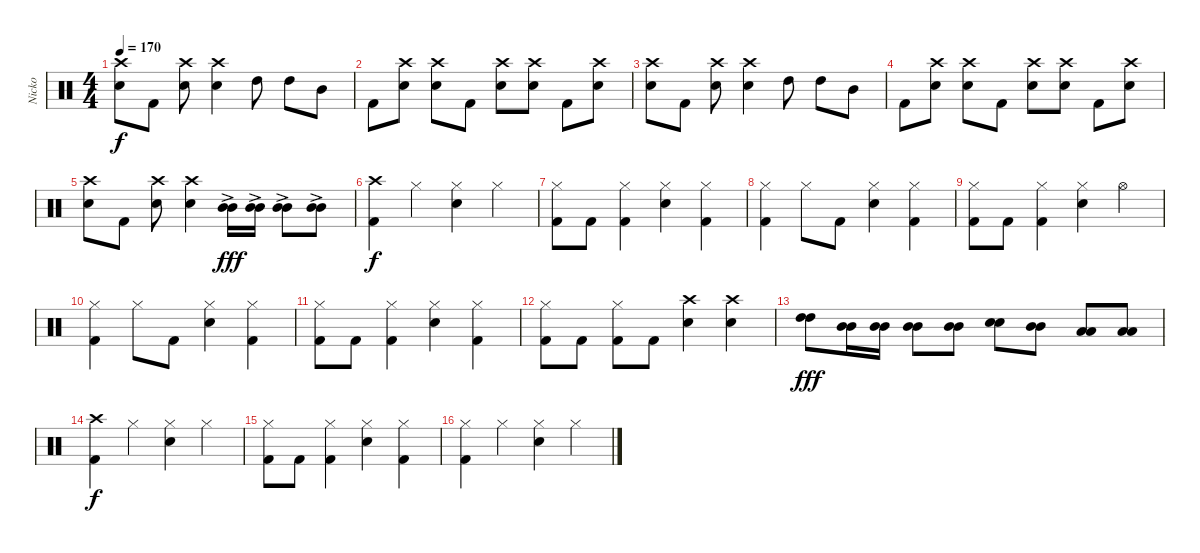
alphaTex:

\track ("Nicko" "Nicko") {instrument percussion}
\staff {score}
\articulation defaults
\ts (4 4)
\tempo 170
\clef neutral
\ks c
("Crash high (hit)" "Snare (hit) 2").8{dy f} "Kick (hit) 2".8 ("Crash high (hit)" "Snare (hit) 2").8 ("Crash high (hit)" "Snare (hit) 2").4 "High Tom (hit)".8 "High Tom (hit)".8 "Mid Tom (hit)".8 |
"Kick (hit) 2".8 ("Crash high (hit)" "Snare (hit) 2").8 ("Crash high (hit)" "Snare (hit) 2").8 "Kick (hit) 2".8 ("Crash high (hit)" "Snare (hit) 2").8 ("Crash high (hit)" "Snare (hit) 2").8 "Kick (hit) 2".8 ("Crash high (hit)" "Snare (hit) 2").8 |
("Crash high (hit)" "Snare (hit) 2").8 "Kick (hit) 2".8 ("Crash high (hit)" "Snare (hit) 2").8 ("Crash high (hit)" "Snare (hit) 2").4 "High Tom (hit)".8 "High Tom (hit)".8 "Mid Tom (hit)".8 |
"Kick (hit) 2".8 ("Crash high (hit)" "Snare (hit) 2").8 ("Crash high (hit)" "Snare (hit) 2").8 "Kick (hit) 2".8 ("Crash high (hit)" "Snare (hit) 2").8 ("Crash high (hit)" "Snare (hit) 2").8 "Kick (hit) 2".8 ("Crash high (hit)" "Snare (hit) 2").8 |
("Crash high (hit)" "Snare (hit) 2").8 "Kick (hit) 2".8 ("Crash high (hit)" "Snare (hit) 2").8 ("Crash high (hit)" "Snare (hit) 2").4 ("Mid Tom (hit)"{ac} "Mid Tom (hit)"{ac}).16{dy fff} ("Mid Tom (hit)"{ac} "Mid Tom (hit)"{ac}).16 ("Mid Tom (hit)"{ac} "Mid Tom (hit)"{ac}).8 ("Mid Tom (hit)"{ac} "Mid Tom (hit)"{ac}).8 |
("Crash high (hit)" "Kick (hit) 2").4{dy f} "Hi-Hat (closed)".4 ("Hi-Hat (closed)" "Snare (hit) 2").4 "Hi-Hat (closed)".4 |
("Hi-Hat (closed)" "Kick (hit) 2").8 "Kick (hit) 2".8 ("Hi-Hat (closed)" "Kick (hit) 2").4 ("Hi-Hat (closed)" "Snare (hit) 2").4 ("Hi-Hat (closed)" "Kick (hit) 2").4 |
("Hi-Hat (closed)" "Kick (hit) 2").4 "Hi-Hat (closed)".8 "Kick (hit) 2".8 ("Hi-Hat (closed)" "Snare (hit) 2").4 ("Hi-Hat (closed)" "Kick (hit) 2").4 |
("Hi-Hat (closed)" "Kick (hit) 2").8 "Kick (hit) 2".8 ("Hi-Hat (closed)" "Kick (hit) 2").4 ("Hi-Hat (closed)" "Snare (hit) 2").4 "Hi-Hat (open)".4 |
("Hi-Hat (closed)" "Kick (hit) 2").4 "Hi-Hat (closed)".8 "Kick (hit) 2".8 ("Hi-Hat (closed)" "Snare (hit) 2").4 ("Hi-Hat (closed)" "Kick (hit) 2").4 |
("Hi-Hat (closed)" "Kick (hit) 2").8 "Kick (hit) 2".8 ("Hi-Hat (closed)" "Kick (hit) 2").4 ("Hi-Hat (closed)" "Snare (hit) 2").4 ("Hi-Hat (closed)" "Kick (hit) 2").4 |
("Hi-Hat (closed)" "Kick (hit) 2").8 "Kick (hit) 2".8 ("Hi-Hat (closed)" "Kick (hit) 2").8 "Kick (hit) 2".8 ("Crash high (hit)" "Snare (hit) 2").4 ("Crash high (hit)" "Snare (hit) 2").4 |
("High Tom (hit)" "High Tom (hit)").8{dy fff} ("Mid Tom (hit)" "Mid Tom (hit)").16 ("Mid Tom (hit)" "Mid Tom (hit)").16 ("Mid Tom (hit)" "Mid Tom (hit)").8 ("Mid Tom (hit)" "Mid Tom (hit)").8 ("Snare (hit) 2" "Snare (hit) 2").8 ("Mid Tom (hit)" "Mid Tom (hit)").8 ("Low Tom (hit)" "Low Tom (hit)").8 ("Low Tom (hit)" "Low Tom (hit)").8 |
("Crash high (hit)" "Kick (hit) 2").4{dy f} "Hi-Hat (closed)".4 ("Hi-Hat (closed)" "Snare (hit) 2").4 "Hi-Hat (closed)".4 |
("Hi-Hat (closed)" "Kick (hit) 2").8 "Kick (hit) 2".8 ("Hi-Hat (closed)" "Kick (hit) 2").4 ("Hi-Hat (closed)" "Snare (hit) 2").4 ("Hi-Hat (closed)" "Kick (hit) 2").4 |
("Hi-Hat (closed)" "Kick (hit) 2").4 "Hi-Hat (closed)".4 ("Hi-Hat (closed)" "Snare (hit) 2").4 "Hi-Hat (closed)".4
